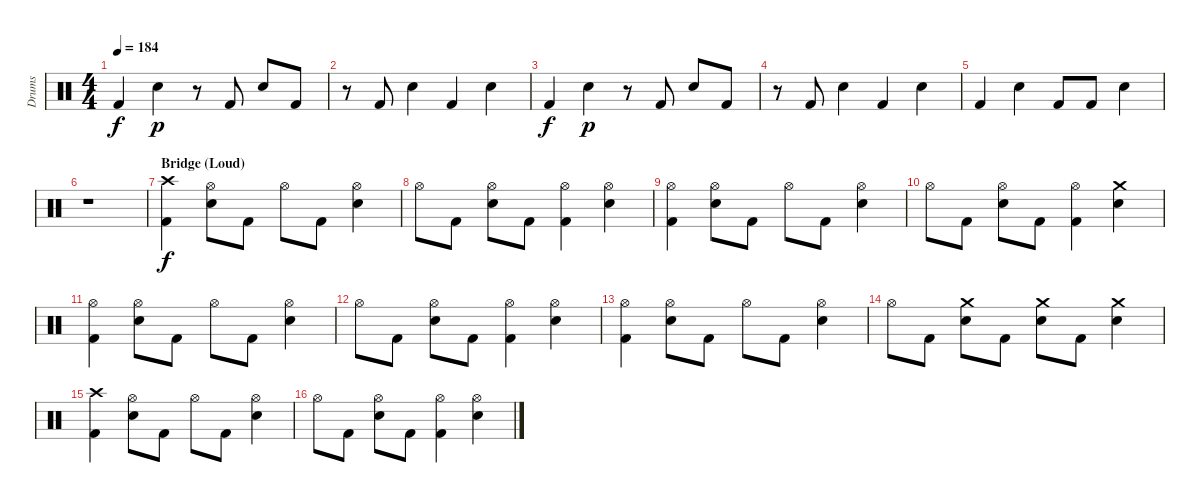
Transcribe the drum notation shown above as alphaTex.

\track ("Drums" "Drums") {instrument percussion}
\staff {score}
\articulation defaults
\ts (4 4)
\tempo 184
\clef neutral
\ks c "Kick (hit) 2".4{dy f} "Snare (hit) 2".4{dy p}
r.8 "Kick (hit) 2".8 "Snare (hit) 2".8 "Kick (hit) 2".8 |
r.8 "Kick (hit) 2".8 "Snare (hit) 2".4 "Kick (hit) 2".4 "Snare (hit) 2".4 |
"Kick (hit) 2".4{dy f} "Snare (hit) 2".4{dy p} r.8 "Kick (hit) 2".8 "Snare (hit) 2".8 "Kick (hit) 2".8 |
r.8 "Kick (hit) 2".8 "Snare (hit) 2".4 "Kick (hit) 2".4 "Snare (hit) 2".4 |
"Kick (hit) 2".4 "Snare (hit) 2".4 "Kick (hit) 2".8 "Kick (hit) 2".8 "Snare (hit) 2".4 |
r.1 |
\section ("" "Bridge (Loud)")
("Crash high (hit)" "Kick (hit) 2").4{dy f} ("Hi-Hat (open)" "Snare (hit) 2").8 "Kick (hit) 2".8 "Hi-Hat (open)".8 "Kick (hit) 2".8 ("Hi-Hat (open)" "Snare (hit) 2").4 |
"Hi-Hat (open)".8 "Kick (hit) 2".8 ("Hi-Hat (open)" "Snare (hit) 2").8 "Kick (hit) 2".8 ("Hi-Hat (open)" "Kick (hit) 2").4 ("Hi-Hat (open)" "Snare (hit) 2").4 |
("Hi-Hat (open)" "Kick (hit) 2").4 ("Hi-Hat (open)" "Snare (hit) 2").8 "Kick (hit) 2".8 "Hi-Hat (open)".8 "Kick (hit) 2".8 ("Hi-Hat (open)" "Snare (hit) 2").4 |
"Hi-Hat (open)".8 "Kick (hit) 2".8 ("Hi-Hat (open)" "Snare (hit) 2").8 "Kick (hit) 2".8 ("Hi-Hat (open)" "Kick (hit) 2").4 ("Crash medium (hit)" "Snare (hit) 2").4 |
("Hi-Hat (open)" "Kick (hit) 2").4 ("Hi-Hat (open)" "Snare (hit) 2").8 "Kick (hit) 2".8 "Hi-Hat (open)".8 "Kick (hit) 2".8 ("Hi-Hat (open)" "Snare (hit) 2").4 |
"Hi-Hat (open)".8 "Kick (hit) 2".8 ("Hi-Hat (open)" "Snare (hit) 2").8 "Kick (hit) 2".8 ("Hi-Hat (open)" "Kick (hit) 2").4 ("Hi-Hat (open)" "Snare (hit) 2").4 |
("Hi-Hat (open)" "Kick (hit) 2").4 ("Hi-Hat (open)" "Snare (hit) 2").8 "Kick (hit) 2".8 "Hi-Hat (open)".8 "Kick (hit) 2".8 ("Hi-Hat (open)" "Snare (hit) 2").4 |
"Hi-Hat (open)".8 "Kick (hit) 2".8 ("Crash medium (hit)" "Snare (hit) 2").8 "Kick (hit) 2".8 ("Crash medium (hit)" "Snare (hit) 2").8 "Kick (hit) 2".8 ("Crash medium (hit)" "Snare (hit) 2").4 |
("Crash high (hit)" "Kick (hit) 2").4 ("Hi-Hat (open)" "Snare (hit) 2").8 "Kick (hit) 2".8 "Hi-Hat (open)".8 "Kick (hit) 2".8 ("Hi-Hat (open)" "Snare (hit) 2").4 |
"Hi-Hat (open)".8 "Kick (hit) 2".8 ("Hi-Hat (open)" "Snare (hit) 2").8 "Kick (hit) 2".8 ("Hi-Hat (open)" "Kick (hit) 2").4 ("Hi-Hat (open)" "Snare (hit) 2").4
